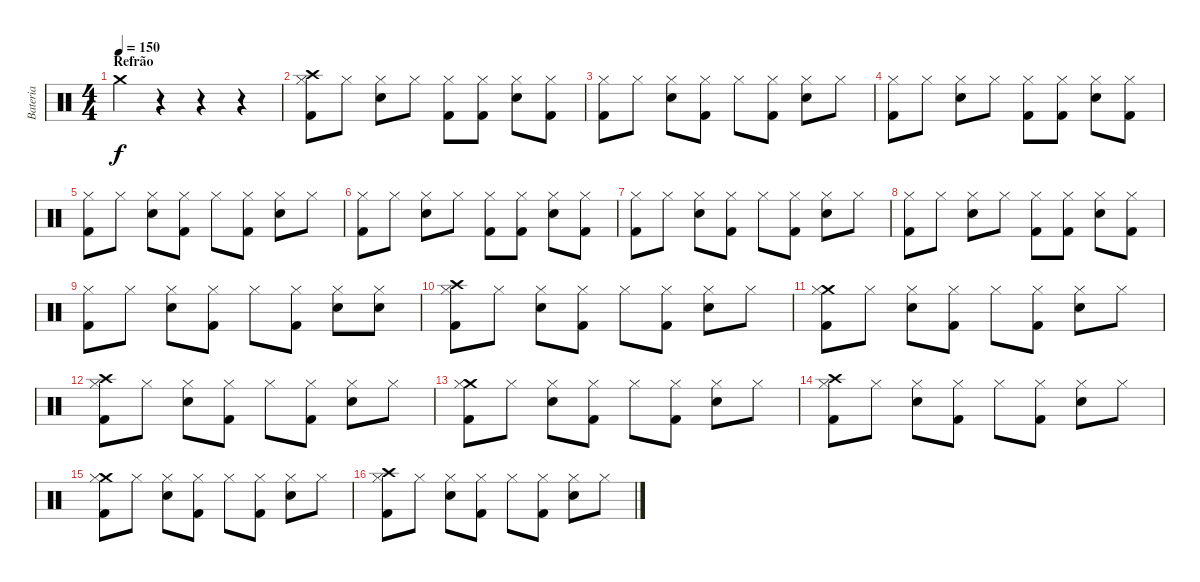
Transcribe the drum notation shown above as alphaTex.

\track ("Bateria" "Bateria") {instrument percussion}
\staff {score}
\articulation defaults
\ts (4 4)
\section ("" "Refrão")
\tempo 150
\clef neutral
\ks c "Crash medium (hit)".4{dy f}
r.4 r.4 r.4 |
("Kick (hit) 2" "Crash high (hit)" "Hi-Hat (closed)").8 "Hi-Hat (closed)".8 ("Electric Snare (hit)" "Hi-Hat (closed)").8 "Hi-Hat (closed)".8 ("Kick (hit) 2" "Hi-Hat (closed)").8 ("Kick (hit) 2" "Hi-Hat (closed)").8 ("Electric Snare (hit)" "Hi-Hat (closed)").8 ("Kick (hit) 2" "Hi-Hat (closed)").8 |
("Kick (hit) 2" "Hi-Hat (closed)").8 "Hi-Hat (closed)".8 ("Electric Snare (hit)" "Hi-Hat (closed)").8 ("Kick (hit) 2" "Hi-Hat (closed)").8 "Hi-Hat (closed)".8 ("Kick (hit) 2" "Hi-Hat (closed)").8 ("Electric Snare (hit)" "Hi-Hat (closed)").8 "Hi-Hat (closed)".8 |
("Kick (hit) 2" "Hi-Hat (closed)").8 "Hi-Hat (closed)".8 ("Electric Snare (hit)" "Hi-Hat (closed)").8 "Hi-Hat (closed)".8 ("Kick (hit) 2" "Hi-Hat (closed)").8 ("Kick (hit) 2" "Hi-Hat (closed)").8 ("Electric Snare (hit)" "Hi-Hat (closed)").8 ("Kick (hit) 2" "Hi-Hat (closed)").8 |
("Kick (hit) 2" "Hi-Hat (closed)").8 "Hi-Hat (closed)".8 ("Electric Snare (hit)" "Hi-Hat (closed)").8 ("Kick (hit) 2" "Hi-Hat (closed)").8 "Hi-Hat (closed)".8 ("Kick (hit) 2" "Hi-Hat (closed)").8 ("Electric Snare (hit)" "Hi-Hat (closed)").8 "Hi-Hat (closed)".8 |
("Kick (hit) 2" "Hi-Hat (closed)").8 "Hi-Hat (closed)".8 ("Electric Snare (hit)" "Hi-Hat (closed)").8 "Hi-Hat (closed)".8 ("Kick (hit) 2" "Hi-Hat (closed)").8 ("Kick (hit) 2" "Hi-Hat (closed)").8 ("Electric Snare (hit)" "Hi-Hat (closed)").8 ("Kick (hit) 2" "Hi-Hat (closed)").8 |
("Kick (hit) 2" "Hi-Hat (closed)").8 "Hi-Hat (closed)".8 ("Electric Snare (hit)" "Hi-Hat (closed)").8 ("Kick (hit) 2" "Hi-Hat (closed)").8 "Hi-Hat (closed)".8 ("Kick (hit) 2" "Hi-Hat (closed)").8 ("Electric Snare (hit)" "Hi-Hat (closed)").8 "Hi-Hat (closed)".8 |
("Kick (hit) 2" "Hi-Hat (closed)").8 "Hi-Hat (closed)".8 ("Electric Snare (hit)" "Hi-Hat (closed)").8 "Hi-Hat (closed)".8 ("Kick (hit) 2" "Hi-Hat (closed)").8 ("Kick (hit) 2" "Hi-Hat (closed)").8 ("Electric Snare (hit)" "Hi-Hat (closed)").8 ("Kick (hit) 2" "Hi-Hat (closed)").8 |
("Kick (hit) 2" "Hi-Hat (closed)").8 "Hi-Hat (closed)".8 ("Electric Snare (hit)" "Hi-Hat (closed)").8 ("Kick (hit) 2" "Hi-Hat (closed)").8 "Hi-Hat (closed)".8 ("Kick (hit) 2" "Hi-Hat (closed)").8 ("Electric Snare (hit)" "Hi-Hat (closed)").8 ("Electric Snare (hit)" "Hi-Hat (closed)").8 |
("Kick (hit) 2" "Crash high (hit)" "Hi-Hat (closed)").8 "Hi-Hat (closed)".8 ("Electric Snare (hit)" "Hi-Hat (closed)").8 ("Kick (hit) 2" "Hi-Hat (closed)").8 "Hi-Hat (closed)".8 ("Kick (hit) 2" "Hi-Hat (closed)").8 ("Electric Snare (hit)" "Hi-Hat (closed)").8 "Hi-Hat (closed)".8 |
("Kick (hit) 2" "Crash medium (hit)" "Hi-Hat (closed)").8 "Hi-Hat (closed)".8 ("Electric Snare (hit)" "Hi-Hat (closed)").8 ("Kick (hit) 2" "Hi-Hat (closed)").8 "Hi-Hat (closed)".8 ("Kick (hit) 2" "Hi-Hat (closed)").8 ("Electric Snare (hit)" "Hi-Hat (closed)").8 "Hi-Hat (closed)".8 |
("Kick (hit) 2" "Crash high (hit)" "Hi-Hat (closed)").8 "Hi-Hat (closed)".8 ("Electric Snare (hit)" "Hi-Hat (closed)").8 ("Kick (hit) 2" "Hi-Hat (closed)").8 "Hi-Hat (closed)".8 ("Kick (hit) 2" "Hi-Hat (closed)").8 ("Electric Snare (hit)" "Hi-Hat (closed)").8 "Hi-Hat (closed)".8 |
("Kick (hit) 2" "Crash medium (hit)" "Hi-Hat (closed)").8 "Hi-Hat (closed)".8 ("Electric Snare (hit)" "Hi-Hat (closed)").8 ("Kick (hit) 2" "Hi-Hat (closed)").8 "Hi-Hat (closed)".8 ("Kick (hit) 2" "Hi-Hat (closed)").8 ("Electric Snare (hit)" "Hi-Hat (closed)").8 "Hi-Hat (closed)".8 |
("Kick (hit) 2" "Crash high (hit)" "Hi-Hat (closed)").8 "Hi-Hat (closed)".8 ("Electric Snare (hit)" "Hi-Hat (closed)").8 ("Kick (hit) 2" "Hi-Hat (closed)").8 "Hi-Hat (closed)".8 ("Kick (hit) 2" "Hi-Hat (closed)").8 ("Electric Snare (hit)" "Hi-Hat (closed)").8 "Hi-Hat (closed)".8 |
("Kick (hit) 2" "Crash medium (hit)" "Hi-Hat (closed)").8 "Hi-Hat (closed)".8 ("Electric Snare (hit)" "Hi-Hat (closed)").8 ("Kick (hit) 2" "Hi-Hat (closed)").8 "Hi-Hat (closed)".8 ("Kick (hit) 2" "Hi-Hat (closed)").8 ("Electric Snare (hit)" "Hi-Hat (closed)").8 "Hi-Hat (closed)".8 |
("Kick (hit) 2" "Crash high (hit)" "Hi-Hat (closed)").8 "Hi-Hat (closed)".8 ("Electric Snare (hit)" "Hi-Hat (closed)").8 ("Kick (hit) 2" "Hi-Hat (closed)").8 "Hi-Hat (closed)".8 ("Kick (hit) 2" "Hi-Hat (closed)").8 ("Electric Snare (hit)" "Hi-Hat (closed)").8 "Hi-Hat (closed)".8
